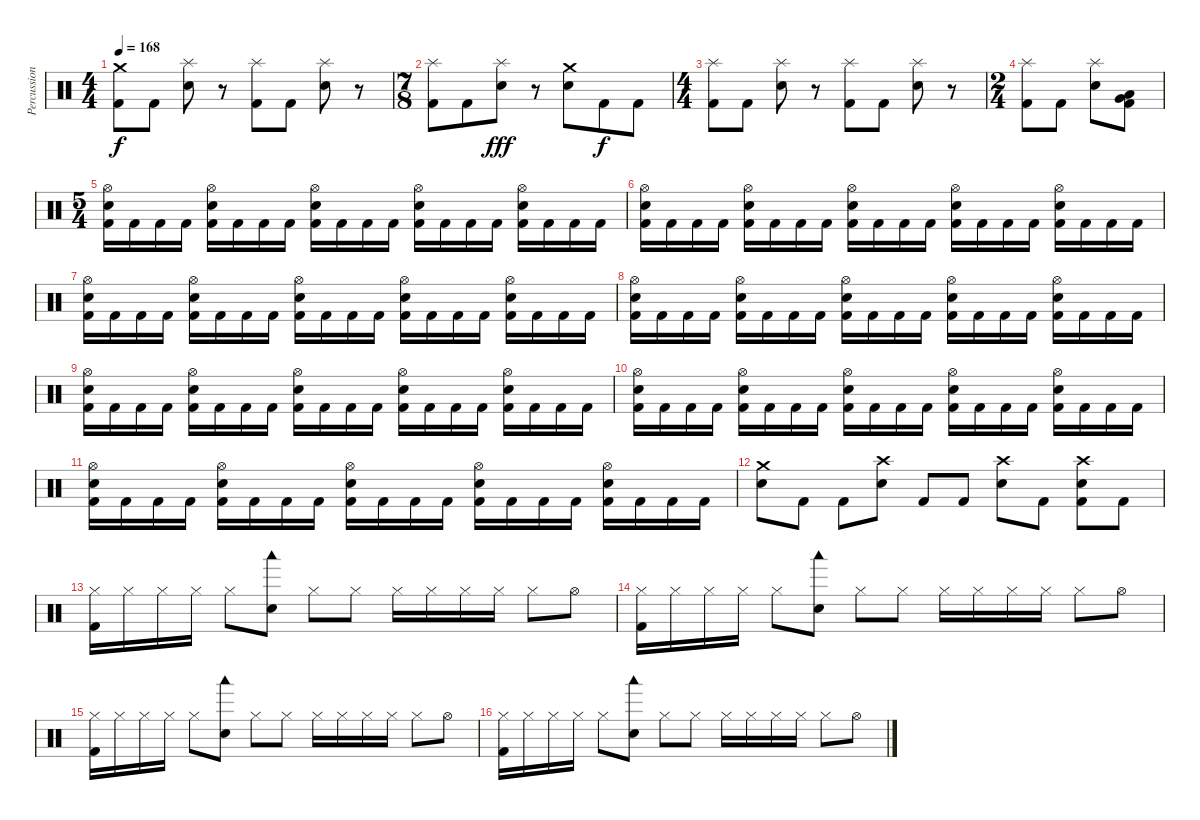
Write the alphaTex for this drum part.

\track ("Percussion" "Percussion") {instrument percussion}
\staff {score}
\articulation defaults
\ts (4 4)
\tempo 168
\clef neutral
\ks c
("Crash medium (hit)" "Kick (hit) 2").8{dy f} "Kick (hit) 2".8 ("Splash (hit)" "Electric Snare (hit)").8 r.8 ("Splash (hit)" "Kick (hit) 2").8 "Kick (hit) 2".8 ("Splash (hit)" "Electric Snare (hit)").8 r.8 |
\ts (7 8)
("Splash (hit)" "Kick (hit) 2").8 "Kick (hit) 2".8 ("Splash (hit)" "Electric Snare (hit)").8{dy fff} r.8 ("Crash medium (hit)" "Electric Snare (hit)").8 "Kick (hit) 2".8{dy f} "Kick (hit) 2".8 |
\ts (4 4)
("Splash (hit)" "Kick (hit) 2").8 "Kick (hit) 2".8 ("Splash (hit)" "Electric Snare (hit)").8 r.8 ("Splash (hit)" "Kick (hit) 2").8 "Kick (hit) 2".8 ("Splash (hit)" "Electric Snare (hit)").8 r.8 |
\ts (2 4)
("Splash (hit)" "Kick (hit) 2").8 "Kick (hit) 2".8 ("Splash (hit)" "Electric Snare (hit)").8 ("Very Low Tom (hit)" "Low Tom (hit)" "Kick (hit) 2").8 |
\ts (5 4)
("Hi-Hat (open)" "Electric Snare (hit)" "Kick (hit) 2").16 "Kick (hit) 2".16 "Kick (hit) 2".16 "Kick (hit) 2".16 ("Hi-Hat (open)" "Electric Snare (hit)" "Kick (hit) 2").16 "Kick (hit) 2".16 "Kick (hit) 2".16 "Kick (hit) 2".16 ("Hi-Hat (open)" "Electric Snare (hit)" "Kick (hit) 2").16 "Kick (hit) 2".16 "Kick (hit) 2".16 "Kick (hit) 2".16 ("Hi-Hat (open)" "Electric Snare (hit)" "Kick (hit) 2").16 "Kick (hit) 2".16 "Kick (hit) 2".16 "Kick (hit) 2".16 ("Hi-Hat (open)" "Electric Snare (hit)" "Kick (hit) 2").16 "Kick (hit) 2".16 "Kick (hit) 2".16 "Kick (hit) 2".16 |
("Hi-Hat (open)" "Electric Snare (hit)" "Kick (hit) 2").16 "Kick (hit) 2".16 "Kick (hit) 2".16 "Kick (hit) 2".16 ("Hi-Hat (open)" "Electric Snare (hit)" "Kick (hit) 2").16 "Kick (hit) 2".16 "Kick (hit) 2".16 "Kick (hit) 2".16 ("Hi-Hat (open)" "Electric Snare (hit)" "Kick (hit) 2").16 "Kick (hit) 2".16 "Kick (hit) 2".16 "Kick (hit) 2".16 ("Hi-Hat (open)" "Electric Snare (hit)" "Kick (hit) 2").16 "Kick (hit) 2".16 "Kick (hit) 2".16 "Kick (hit) 2".16 ("Hi-Hat (open)" "Electric Snare (hit)" "Kick (hit) 2").16 "Kick (hit) 2".16 "Kick (hit) 2".16 "Kick (hit) 2".16 |
("Hi-Hat (open)" "Electric Snare (hit)" "Kick (hit) 2").16 "Kick (hit) 2".16 "Kick (hit) 2".16 "Kick (hit) 2".16 ("Hi-Hat (open)" "Electric Snare (hit)" "Kick (hit) 2").16 "Kick (hit) 2".16 "Kick (hit) 2".16 "Kick (hit) 2".16 ("Hi-Hat (open)" "Electric Snare (hit)" "Kick (hit) 2").16 "Kick (hit) 2".16 "Kick (hit) 2".16 "Kick (hit) 2".16 ("Hi-Hat (open)" "Electric Snare (hit)" "Kick (hit) 2").16 "Kick (hit) 2".16 "Kick (hit) 2".16 "Kick (hit) 2".16 ("Hi-Hat (open)" "Electric Snare (hit)" "Kick (hit) 2").16 "Kick (hit) 2".16 "Kick (hit) 2".16 "Kick (hit) 2".16 |
("Hi-Hat (open)" "Electric Snare (hit)" "Kick (hit) 2").16 "Kick (hit) 2".16 "Kick (hit) 2".16 "Kick (hit) 2".16 ("Hi-Hat (open)" "Electric Snare (hit)" "Kick (hit) 2").16 "Kick (hit) 2".16 "Kick (hit) 2".16 "Kick (hit) 2".16 ("Hi-Hat (open)" "Electric Snare (hit)" "Kick (hit) 2").16 "Kick (hit) 2".16 "Kick (hit) 2".16 "Kick (hit) 2".16 ("Hi-Hat (open)" "Electric Snare (hit)" "Kick (hit) 2").16 "Kick (hit) 2".16 "Kick (hit) 2".16 "Kick (hit) 2".16 ("Hi-Hat (open)" "Electric Snare (hit)" "Kick (hit) 2").16 "Kick (hit) 2".16 "Kick (hit) 2".16 "Kick (hit) 2".16 |
("Hi-Hat (open)" "Electric Snare (hit)" "Kick (hit) 2").16 "Kick (hit) 2".16 "Kick (hit) 2".16 "Kick (hit) 2".16 ("Hi-Hat (open)" "Electric Snare (hit)" "Kick (hit) 2").16 "Kick (hit) 2".16 "Kick (hit) 2".16 "Kick (hit) 2".16 ("Hi-Hat (open)" "Electric Snare (hit)" "Kick (hit) 2").16 "Kick (hit) 2".16 "Kick (hit) 2".16 "Kick (hit) 2".16 ("Hi-Hat (open)" "Electric Snare (hit)" "Kick (hit) 2").16 "Kick (hit) 2".16 "Kick (hit) 2".16 "Kick (hit) 2".16 ("Hi-Hat (open)" "Electric Snare (hit)" "Kick (hit) 2").16 "Kick (hit) 2".16 "Kick (hit) 2".16 "Kick (hit) 2".16 |
("Hi-Hat (open)" "Electric Snare (hit)" "Kick (hit) 2").16 "Kick (hit) 2".16 "Kick (hit) 2".16 "Kick (hit) 2".16 ("Hi-Hat (open)" "Electric Snare (hit)" "Kick (hit) 2").16 "Kick (hit) 2".16 "Kick (hit) 2".16 "Kick (hit) 2".16 ("Hi-Hat (open)" "Electric Snare (hit)" "Kick (hit) 2").16 "Kick (hit) 2".16 "Kick (hit) 2".16 "Kick (hit) 2".16 ("Hi-Hat (open)" "Electric Snare (hit)" "Kick (hit) 2").16 "Kick (hit) 2".16 "Kick (hit) 2".16 "Kick (hit) 2".16 ("Hi-Hat (open)" "Electric Snare (hit)" "Kick (hit) 2").16 "Kick (hit) 2".16 "Kick (hit) 2".16 "Kick (hit) 2".16 |
("Hi-Hat (open)" "Electric Snare (hit)" "Kick (hit) 2").16 "Kick (hit) 2".16 "Kick (hit) 2".16 "Kick (hit) 2".16 ("Hi-Hat (open)" "Electric Snare (hit)" "Kick (hit) 2").16 "Kick (hit) 2".16 "Kick (hit) 2".16 "Kick (hit) 2".16 ("Hi-Hat (open)" "Electric Snare (hit)" "Kick (hit) 2").16 "Kick (hit) 2".16 "Kick (hit) 2".16 "Kick (hit) 2".16 ("Hi-Hat (open)" "Electric Snare (hit)" "Kick (hit) 2").16 "Kick (hit) 2".16 "Kick (hit) 2".16 "Kick (hit) 2".16 ("Hi-Hat (open)" "Electric Snare (hit)" "Kick (hit) 2").16 "Kick (hit) 2".16 "Kick (hit) 2".16 "Kick (hit) 2".16 |
("Crash medium (hit)" "Electric Snare (hit)").8 "Kick (hit) 2".8 "Kick (hit) 2".8 ("Crash high (hit)" "Electric Snare (hit)").8 "Kick (hit) 2".8 "Kick (hit) 2".8 ("Crash high (hit)" "Electric Snare (hit)").8 "Kick (hit) 2".8 ("Crash high (hit)" "Electric Snare (hit)" "Kick (hit) 2").8 "Kick (hit) 2".8 |
("Hi-Hat (closed)" "Kick (hit) 2").16 "Hi-Hat (closed)".16 "Hi-Hat (closed)".16 "Hi-Hat (closed)".16 "Hi-Hat (closed)".8 ("Woodblock low (hit)" "Electric Snare (hit)").8 "Hi-Hat (closed)".8 "Hi-Hat (closed)".8 "Hi-Hat (closed)".16 "Hi-Hat (closed)".16 "Hi-Hat (closed)".16 "Hi-Hat (closed)".16 "Hi-Hat (closed)".8 "Hi-Hat (open)".8 |
("Hi-Hat (closed)" "Kick (hit) 2").16 "Hi-Hat (closed)".16 "Hi-Hat (closed)".16 "Hi-Hat (closed)".16 "Hi-Hat (closed)".8 ("Woodblock low (hit)" "Electric Snare (hit)").8 "Hi-Hat (closed)".8 "Hi-Hat (closed)".8 "Hi-Hat (closed)".16 "Hi-Hat (closed)".16 "Hi-Hat (closed)".16 "Hi-Hat (closed)".16 "Hi-Hat (closed)".8 "Hi-Hat (open)".8 |
("Hi-Hat (closed)" "Kick (hit) 2").16 "Hi-Hat (closed)".16 "Hi-Hat (closed)".16 "Hi-Hat (closed)".16 "Hi-Hat (closed)".8 ("Woodblock low (hit)" "Electric Snare (hit)").8 "Hi-Hat (closed)".8 "Hi-Hat (closed)".8 "Hi-Hat (closed)".16 "Hi-Hat (closed)".16 "Hi-Hat (closed)".16 "Hi-Hat (closed)".16 "Hi-Hat (closed)".8 "Hi-Hat (open)".8 |
("Hi-Hat (closed)" "Kick (hit) 2").16 "Hi-Hat (closed)".16 "Hi-Hat (closed)".16 "Hi-Hat (closed)".16 "Hi-Hat (closed)".8 ("Woodblock low (hit)" "Electric Snare (hit)").8 "Hi-Hat (closed)".8 "Hi-Hat (closed)".8 "Hi-Hat (closed)".16 "Hi-Hat (closed)".16 "Hi-Hat (closed)".16 "Hi-Hat (closed)".16 "Hi-Hat (closed)".8 "Hi-Hat (open)".8
